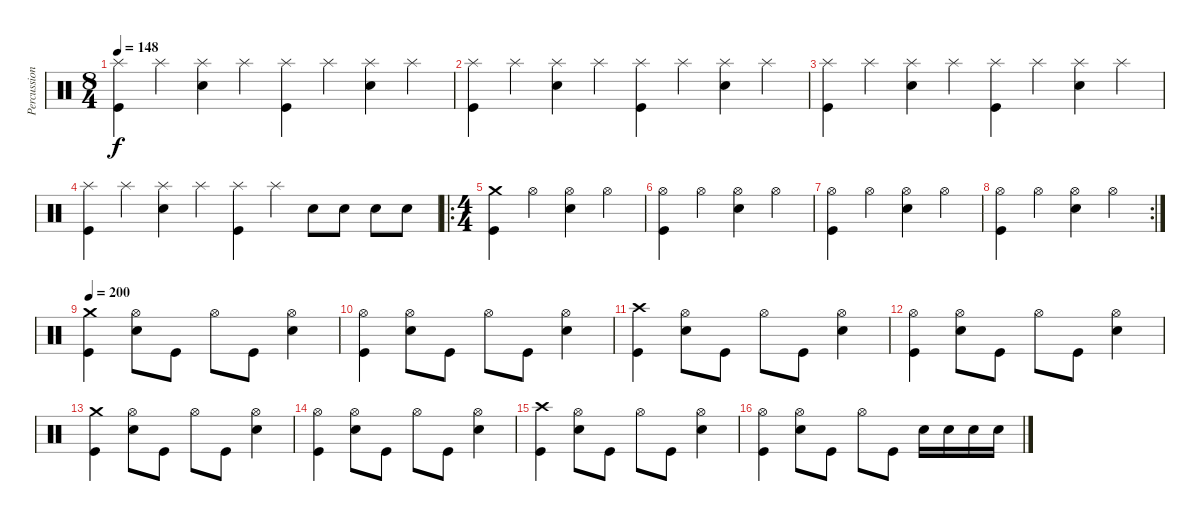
\track ("Percussions" "Percussion") {instrument percussion}
\staff {score}
\articulation defaults
\ts (8 4)
\tempo 148
\clef neutral
\ks c
("Kick (hit)" "Splash (hit)").4{dy f} "Splash (hit)".4 ("Electric Snare (hit)" "Splash (hit)").4 "Splash (hit)".4 ("Kick (hit)" "Splash (hit)").4 "Splash (hit)".4 ("Electric Snare (hit)" "Splash (hit)").4 "Splash (hit)".4 |
("Kick (hit)" "Splash (hit)").4 "Splash (hit)".4 ("Electric Snare (hit)" "Splash (hit)").4 "Splash (hit)".4 ("Kick (hit)" "Splash (hit)").4 "Splash (hit)".4 ("Electric Snare (hit)" "Splash (hit)").4 "Splash (hit)".4 |
("Kick (hit)" "Splash (hit)").4 "Splash (hit)".4 ("Electric Snare (hit)" "Splash (hit)").4 "Splash (hit)".4 ("Kick (hit)" "Splash (hit)").4 "Splash (hit)".4 ("Electric Snare (hit)" "Splash (hit)").4 "Splash (hit)".4 |
("Kick (hit)" "Splash (hit)").4 "Splash (hit)".4 ("Electric Snare (hit)" "Splash (hit)").4 "Splash (hit)".4 ("Kick (hit)" "Splash (hit)").4 "Splash (hit)".4 "Electric Snare (hit)".8 "Electric Snare (hit)".8 "Electric Snare (hit)".8 "Electric Snare (hit)".8 |
\ro
\ts (4 4)
("Kick (hit)" "Crash medium (hit)").4 "Hi-Hat (open)".4 ("Electric Snare (hit)" "Hi-Hat (open)").4 "Hi-Hat (open)".4 |
("Kick (hit)" "Hi-Hat (open)").4 "Hi-Hat (open)".4 ("Electric Snare (hit)" "Hi-Hat (open)").4 "Hi-Hat (open)".4 |
("Kick (hit)" "Hi-Hat (open)").4 "Hi-Hat (open)".4 ("Electric Snare (hit)" "Hi-Hat (open)").4 "Hi-Hat (open)".4 |
\rc 2
("Kick (hit)" "Hi-Hat (open)").4 "Hi-Hat (open)".4 ("Electric Snare (hit)" "Hi-Hat (open)").4 "Hi-Hat (open)".4 |
\tempo 200
("Kick (hit)" "Crash medium (hit)").4 ("Electric Snare (hit)" "Hi-Hat (open)").8 "Kick (hit)".8 "Hi-Hat (open)".8 "Kick (hit)".8 ("Electric Snare (hit)" "Hi-Hat (open)").4 |
("Kick (hit)" "Hi-Hat (open)").4 ("Electric Snare (hit)" "Hi-Hat (open)").8 "Kick (hit)".8 "Hi-Hat (open)".8 "Kick (hit)".8 ("Electric Snare (hit)" "Hi-Hat (open)").4 |
("Kick (hit)" "Crash high (hit)").4 ("Electric Snare (hit)" "Hi-Hat (open)").8 "Kick (hit)".8 "Hi-Hat (open)".8 "Kick (hit)".8 ("Electric Snare (hit)" "Hi-Hat (open)").4 |
("Kick (hit)" "Hi-Hat (open)").4 ("Electric Snare (hit)" "Hi-Hat (open)").8 "Kick (hit)".8 "Hi-Hat (open)".8 "Kick (hit)".8 ("Electric Snare (hit)" "Hi-Hat (open)").4 |
("Kick (hit)" "Crash medium (hit)").4 ("Electric Snare (hit)" "Hi-Hat (open)").8 "Kick (hit)".8 "Hi-Hat (open)".8 "Kick (hit)".8 ("Electric Snare (hit)" "Hi-Hat (open)").4 |
("Kick (hit)" "Hi-Hat (open)").4 ("Electric Snare (hit)" "Hi-Hat (open)").8 "Kick (hit)".8 "Hi-Hat (open)".8 "Kick (hit)".8 ("Electric Snare (hit)" "Hi-Hat (open)").4 |
("Kick (hit)" "Crash high (hit)").4 ("Electric Snare (hit)" "Hi-Hat (open)").8 "Kick (hit)".8 "Hi-Hat (open)".8 "Kick (hit)".8 ("Electric Snare (hit)" "Hi-Hat (open)").4 |
("Kick (hit)" "Hi-Hat (open)").4 ("Electric Snare (hit)" "Hi-Hat (open)").8 "Kick (hit)".8 "Hi-Hat (open)".8 "Kick (hit)".8 "Electric Snare (hit)".16 "Electric Snare (hit)".16 "Electric Snare (hit)".16 "Electric Snare (hit)".16
